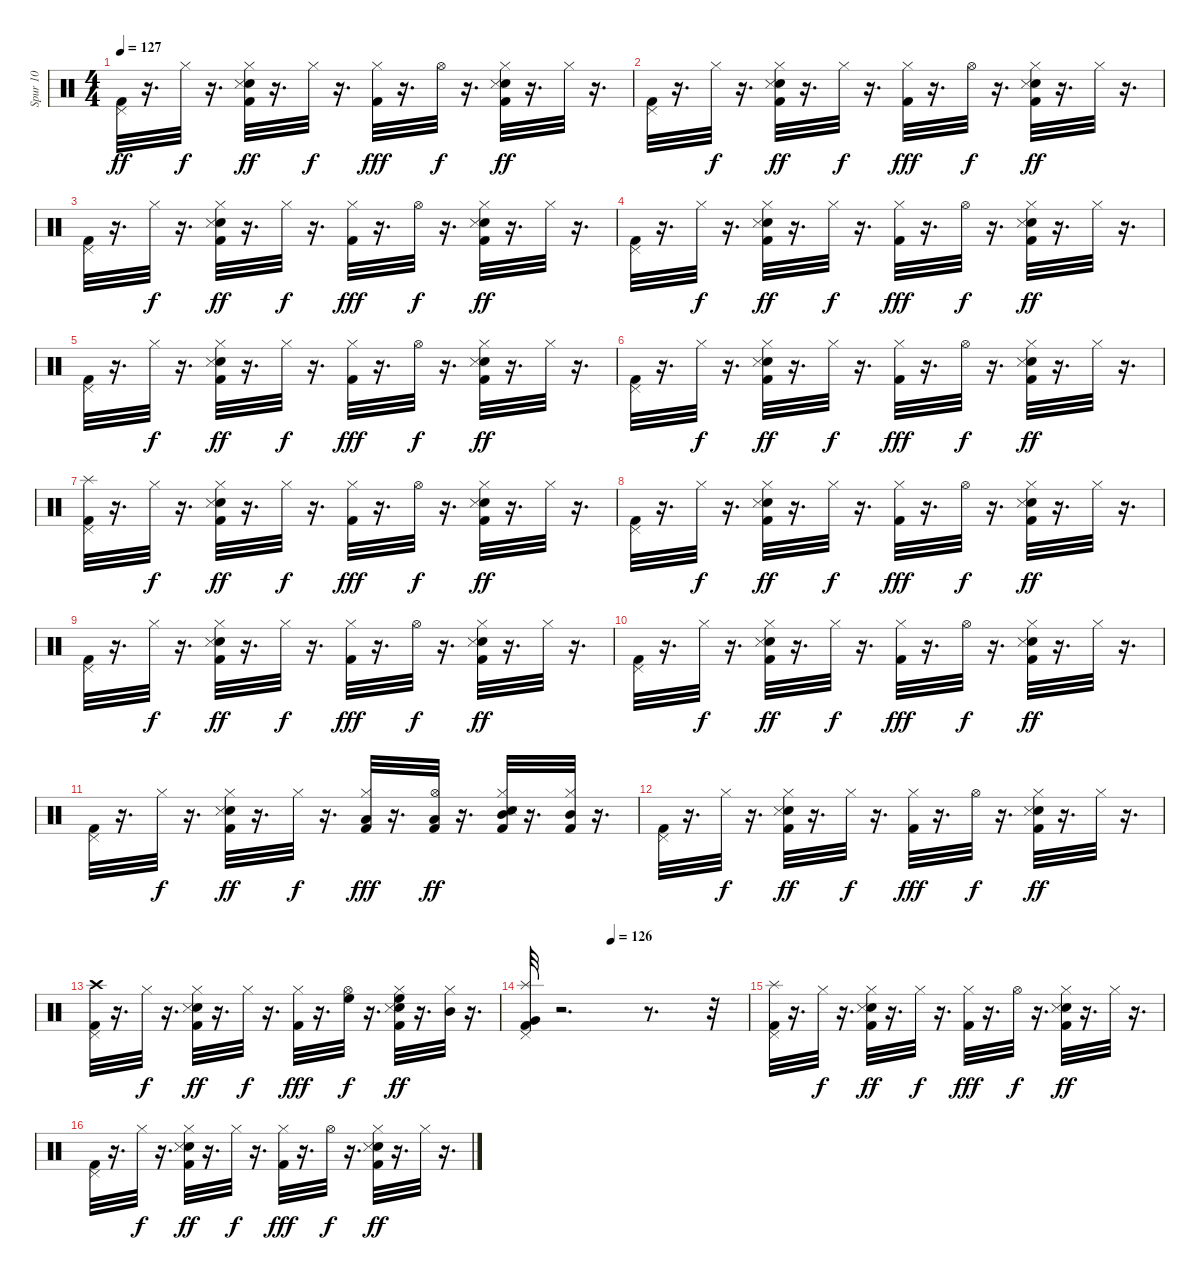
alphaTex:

\track ("Spur 10" "Spur 10") {instrument percussion}
\staff {score}
\articulation defaults
\ts (4 4)
\tempo 127
\clef neutral
\ks c
("Kick (hit) 2" "Pedal Hi-Hat (hit)").32{dy ff} r.16{d} "Hi-Hat (closed)".32{dy f} r.16{d} ("Snare (hit) 2" "Kick (hit) 2" "Hi-Hat (closed)" "Snare (side stick) 3").32{dy ff} r.16{d} "Hi-Hat (closed)".32{dy f} r.16{d} ("Kick (hit) 2" "Hi-Hat (closed)").32{dy fff} r.16{d} "Hi-Hat (open)".32{dy f} r.16{d} ("Snare (hit) 2" "Kick (hit) 2" "Hi-Hat (closed)" "Snare (side stick) 3").32{dy ff} r.16{d} "Hi-Hat (closed)".32 r.16{d} |
("Kick (hit) 2" "Pedal Hi-Hat (hit)").32 r.16{d} "Hi-Hat (closed)".32{dy f} r.16{d} ("Snare (hit) 2" "Kick (hit) 2" "Hi-Hat (closed)" "Snare (side stick) 3").32{dy ff} r.16{d} "Hi-Hat (closed)".32{dy f} r.16{d} ("Kick (hit) 2" "Hi-Hat (closed)").32{dy fff} r.16{d} "Hi-Hat (open)".32{dy f} r.16{d} ("Snare (hit) 2" "Kick (hit) 2" "Hi-Hat (closed)" "Snare (side stick) 3").32{dy ff} r.16{d} "Hi-Hat (closed)".32 r.16{d} |
("Kick (hit) 2" "Pedal Hi-Hat (hit)").32 r.16{d} "Hi-Hat (closed)".32{dy f} r.16{d} ("Snare (hit) 2" "Kick (hit) 2" "Hi-Hat (closed)" "Snare (side stick) 3").32{dy ff} r.16{d} "Hi-Hat (closed)".32{dy f} r.16{d} ("Kick (hit) 2" "Hi-Hat (closed)").32{dy fff} r.16{d} "Hi-Hat (open)".32{dy f} r.16{d} ("Snare (hit) 2" "Kick (hit) 2" "Hi-Hat (closed)" "Snare (side stick) 3").32{dy ff} r.16{d} "Hi-Hat (closed)".32 r.16{d} |
("Kick (hit) 2" "Pedal Hi-Hat (hit)").32 r.16{d} "Hi-Hat (closed)".32{dy f} r.16{d} ("Snare (hit) 2" "Kick (hit) 2" "Hi-Hat (closed)" "Snare (side stick) 3").32{dy ff} r.16{d} "Hi-Hat (closed)".32{dy f} r.16{d} ("Kick (hit) 2" "Hi-Hat (closed)").32{dy fff} r.16{d} "Hi-Hat (open)".32{dy f} r.16{d} ("Snare (hit) 2" "Kick (hit) 2" "Hi-Hat (closed)" "Snare (side stick) 3").32{dy ff} r.16{d} "Hi-Hat (closed)".32 r.16{d} |
("Kick (hit) 2" "Pedal Hi-Hat (hit)").32 r.16{d} "Hi-Hat (closed)".32{dy f} r.16{d} ("Snare (hit) 2" "Kick (hit) 2" "Hi-Hat (closed)" "Snare (side stick) 3").32{dy ff} r.16{d} "Hi-Hat (closed)".32{dy f} r.16{d} ("Kick (hit) 2" "Hi-Hat (closed)").32{dy fff} r.16{d} "Hi-Hat (open)".32{dy f} r.16{d} ("Snare (hit) 2" "Kick (hit) 2" "Hi-Hat (closed)" "Snare (side stick) 3").32{dy ff} r.16{d} "Hi-Hat (closed)".32 r.16{d} |
("Kick (hit) 2" "Pedal Hi-Hat (hit)").32 r.16{d} "Hi-Hat (closed)".32{dy f} r.16{d} ("Snare (hit) 2" "Kick (hit) 2" "Hi-Hat (closed)" "Snare (side stick) 3").32{dy ff} r.16{d} "Hi-Hat (closed)".32{dy f} r.16{d} ("Kick (hit) 2" "Hi-Hat (closed)").32{dy fff} r.16{d} "Hi-Hat (open)".32{dy f} r.16{d} ("Snare (hit) 2" "Kick (hit) 2" "Hi-Hat (closed)" "Snare (side stick) 3").32{dy ff} r.16{d} "Hi-Hat (closed)".32 r.16{d} |
("Splash (hit)" "Kick (hit) 2" "Pedal Hi-Hat (hit)").32 r.16{d} "Hi-Hat (closed)".32{dy f} r.16{d} ("Snare (hit) 2" "Kick (hit) 2" "Hi-Hat (closed)" "Snare (side stick) 3").32{dy ff} r.16{d} "Hi-Hat (closed)".32{dy f} r.16{d} ("Kick (hit) 2" "Hi-Hat (closed)").32{dy fff} r.16{d} "Hi-Hat (open)".32{dy f} r.16{d} ("Snare (hit) 2" "Kick (hit) 2" "Hi-Hat (closed)" "Snare (side stick) 3").32{dy ff} r.16{d} "Hi-Hat (closed)".32 r.16{d} |
("Kick (hit) 2" "Pedal Hi-Hat (hit)").32 r.16{d} "Hi-Hat (closed)".32{dy f} r.16{d} ("Snare (hit) 2" "Kick (hit) 2" "Hi-Hat (closed)" "Snare (side stick) 3").32{dy ff} r.16{d} "Hi-Hat (closed)".32{dy f} r.16{d} ("Kick (hit) 2" "Hi-Hat (closed)").32{dy fff} r.16{d} "Hi-Hat (open)".32{dy f} r.16{d} ("Snare (hit) 2" "Kick (hit) 2" "Hi-Hat (closed)" "Snare (side stick) 3").32{dy ff} r.16{d} "Hi-Hat (closed)".32 r.16{d} |
("Kick (hit) 2" "Pedal Hi-Hat (hit)").32 r.16{d} "Hi-Hat (closed)".32{dy f} r.16{d} ("Snare (hit) 2" "Kick (hit) 2" "Hi-Hat (closed)" "Snare (side stick) 3").32{dy ff} r.16{d} "Hi-Hat (closed)".32{dy f} r.16{d} ("Kick (hit) 2" "Hi-Hat (closed)").32{dy fff} r.16{d} "Hi-Hat (open)".32{dy f} r.16{d} ("Snare (hit) 2" "Kick (hit) 2" "Hi-Hat (closed)" "Snare (side stick) 3").32{dy ff} r.16{d} "Hi-Hat (closed)".32 r.16{d} |
("Kick (hit) 2" "Pedal Hi-Hat (hit)").32 r.16{d} "Hi-Hat (closed)".32{dy f} r.16{d} ("Snare (hit) 2" "Kick (hit) 2" "Hi-Hat (closed)" "Snare (side stick) 3").32{dy ff} r.16{d} "Hi-Hat (closed)".32{dy f} r.16{d} ("Kick (hit) 2" "Hi-Hat (closed)").32{dy fff} r.16{d} "Hi-Hat (open)".32{dy f} r.16{d} ("Snare (hit) 2" "Kick (hit) 2" "Hi-Hat (closed)" "Snare (side stick) 3").32{dy ff} r.16{d} "Hi-Hat (closed)".32 r.16{d} |
("Kick (hit) 2" "Pedal Hi-Hat (hit)").32 r.16{d} "Hi-Hat (closed)".32{dy f} r.16{d} ("Snare (hit) 2" "Kick (hit) 2" "Hi-Hat (closed)" "Snare (side stick) 3").32{dy ff} r.16{d} "Hi-Hat (closed)".32{dy f} r.16{d} ("Low Tom (hit)" "Kick (hit) 2" "Hi-Hat (closed)").32{dy fff} r.16{d} ("Low Tom (hit)" "Kick (hit) 2" "Hi-Hat (open)").32{dy ff} r.16{d} ("Snare (hit) 2" "Kick (hit) 2" "Mid Tom (hit)" "Hi-Hat (closed)" "Snare (side stick) 3").32 r.16{d} ("Mid Tom (hit)" "Kick (hit) 2" "Hi-Hat (closed)").32 r.16{d} |
("Kick (hit) 2" "Pedal Hi-Hat (hit)").32 r.16{d} "Hi-Hat (closed)".32{dy f} r.16{d} ("Snare (hit) 2" "Kick (hit) 2" "Hi-Hat (closed)" "Snare (side stick) 3").32{dy ff} r.16{d} "Hi-Hat (closed)".32{dy f} r.16{d} ("Kick (hit) 2" "Hi-Hat (closed)").32{dy fff} r.16{d} "Hi-Hat (open)".32{dy f} r.16{d} ("Snare (hit) 2" "Kick (hit) 2" "Hi-Hat (closed)" "Snare (side stick) 3").32{dy ff} r.16{d} "Hi-Hat (closed)".32 r.16{d} |
("Crash high (hit)" "Kick (hit) 2" "Pedal Hi-Hat (hit)").32 r.16{d} "Hi-Hat (closed)".32{dy f} r.16{d} ("Snare (hit) 2" "Kick (hit) 2" "Hi-Hat (closed)" "Snare (side stick) 3").32{dy ff} r.16{d} "Hi-Hat (closed)".32{dy f} r.16{d} ("Kick (hit) 2" "Hi-Hat (closed)").32{dy fff} r.16{d} ("Hi-Hat (open)" "High Floor Tom (hit)").32{dy f} r.16{d} ("Snare (hit) 2" "Kick (hit) 2" "Hi-Hat (closed)" "Snare (side stick) 3" "High Floor Tom (hit)").32{dy ff} r.16{d} ("Hi-Hat (closed)" "Mid Tom (hit)").32 r.16{d} |
\tempo (126 0.375)
("Kick (hit) 2" "Pedal Hi-Hat (hit)" "Splash (hit)" "Very Low Tom (hit)").32 r.2{d} r.8{d} r.32 |
("Splash (hit)" "Kick (hit) 2" "Pedal Hi-Hat (hit)").32 r.16{d} "Hi-Hat (closed)".32{dy f} r.16{d} ("Snare (hit) 2" "Kick (hit) 2" "Hi-Hat (closed)" "Snare (side stick) 3").32{dy ff} r.16{d} "Hi-Hat (closed)".32{dy f} r.16{d} ("Kick (hit) 2" "Hi-Hat (closed)").32{dy fff} r.16{d} "Hi-Hat (open)".32{dy f} r.16{d} ("Snare (hit) 2" "Kick (hit) 2" "Hi-Hat (closed)" "Snare (side stick) 3").32{dy ff} r.16{d} "Hi-Hat (closed)".32 r.16{d} |
("Kick (hit) 2" "Pedal Hi-Hat (hit)").32 r.16{d} "Hi-Hat (closed)".32{dy f} r.16{d} ("Snare (hit) 2" "Kick (hit) 2" "Hi-Hat (closed)" "Snare (side stick) 3").32{dy ff} r.16{d} "Hi-Hat (closed)".32{dy f} r.16{d} ("Kick (hit) 2" "Hi-Hat (closed)").32{dy fff} r.16{d} "Hi-Hat (open)".32{dy f} r.16{d} ("Snare (hit) 2" "Kick (hit) 2" "Hi-Hat (closed)" "Snare (side stick) 3").32{dy ff} r.16{d} "Hi-Hat (closed)".32 r.16{d}
